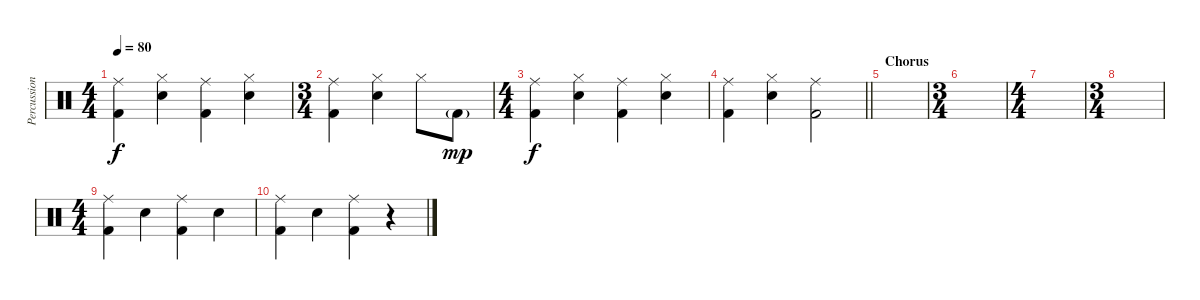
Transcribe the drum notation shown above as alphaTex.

\track ("Percussion" "Percussion") {instrument percussion}
\staff {score}
\articulation defaults
\ts (4 4)
\tempo 80
\clef neutral
\ks c
("Ride (middle)" "Kick (hit) 2").4{dy f} ("Snare (hit) 2" "Hi-Hat (closed)").4 ("Ride (middle)" "Kick (hit) 2").4 ("Snare (hit) 2" "Hi-Hat (closed)").4 |
\ts (3 4)
("Ride (middle)" "Kick (hit) 2").4 ("Snare (hit) 2" "Hi-Hat (closed)").4 "Hi-Hat (closed)".8 "Kick (hit) 2"{g}.8{dy mp} |
\ts (4 4)
("Ride (middle)" "Kick (hit) 2").4{dy f} ("Snare (hit) 2" "Hi-Hat (closed)").4 ("Ride (middle)" "Kick (hit) 2").4 ("Snare (hit) 2" "Hi-Hat (closed)").4 |
\barLineRight lightlight
("Ride (middle)" "Kick (hit) 2").4 ("Snare (hit) 2" "Hi-Hat (closed)").4 ("Ride (middle)" "Kick (hit) 2").2 |
\section ("" "Chorus")
|
\ts (3 4)
|
\ts (4 4)
|
\ts (3 4)
|
\ts (4 4)
("Ride (middle)" "Kick (hit) 2").4 "Snare (hit) 2".4 ("Ride (middle)" "Kick (hit) 2").4 "Snare (hit) 2".4 |
("Ride (middle)" "Kick (hit) 2").4 "Snare (hit) 2".4 ("Ride (middle)" "Kick (hit) 2").4 r.4
